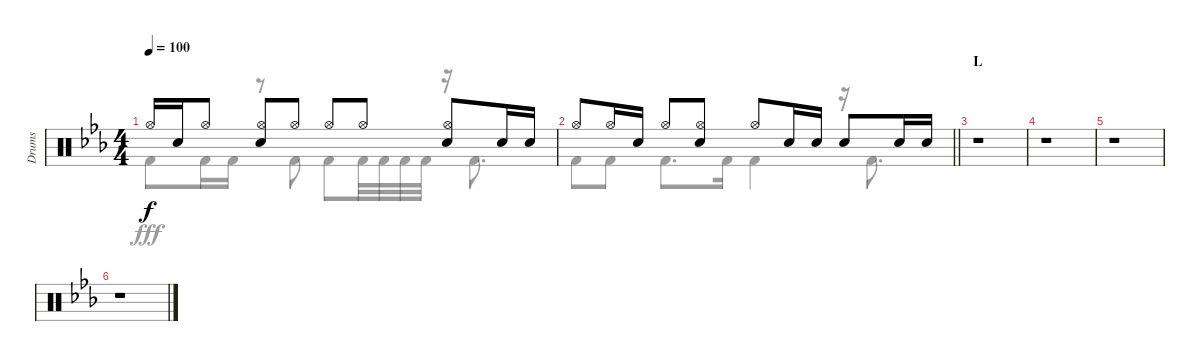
\track ("Drums" "Drums") {instrument percussion}
\staff {score}
\articulation defaults
\voice
\ts (4 4)
\tempo 100
\clef neutral
\ks eb "Hi-Hat (open)".16{dy f} "Snare (hit) 2".16 "Hi-Hat (open)".8
("Hi-Hat (open)" "Snare (hit) 2").8 "Hi-Hat (open)".8 "Hi-Hat (open)".8 "Hi-Hat (open)".8 ("Hi-Hat (open)" "Snare (hit) 2").8 "Snare (hit) 2".16 "Snare (hit) 2".16 |
\barLineRight lightlight "Hi-Hat (open)".8 "Hi-Hat (open)".16 "Snare (hit) 2".16 "Hi-Hat (open)".8
("Hi-Hat (open)" "Snare (hit) 2").8 "Hi-Hat (open)".8 "Snare (hit) 2".16 "Snare (hit) 2".16 "Snare (hit) 2".8 "Snare (hit) 2".16 "Snare (hit) 2".16 |
\section ("" "L")
r.1 |
r.1 |
r.1 |
r.1
\voice
\clef neutral
\ottava regular
\simile none
\ks eb "Kick (hit) 2".8{dy fff} "Kick (hit) 2".16 "Kick (hit) 2".16
r.8 "Kick (hit) 2".8 "Kick (hit) 2".8 "Kick (hit) 2".32 "Kick (hit) 2".32 "Kick (hit) 2".32 "Kick (hit) 2".32 r.16 "Kick (hit) 2".8{d} |
\barLineRight lightlight "Kick (hit) 2".8 "Kick (hit) 2".8 "Kick (hit) 2".8{d} "Kick (hit) 2".16 "Kick (hit) 2".4
r.16 "Kick (hit) 2".8{d} |
r.1 |
r.1 |
r.1 |
r.1
